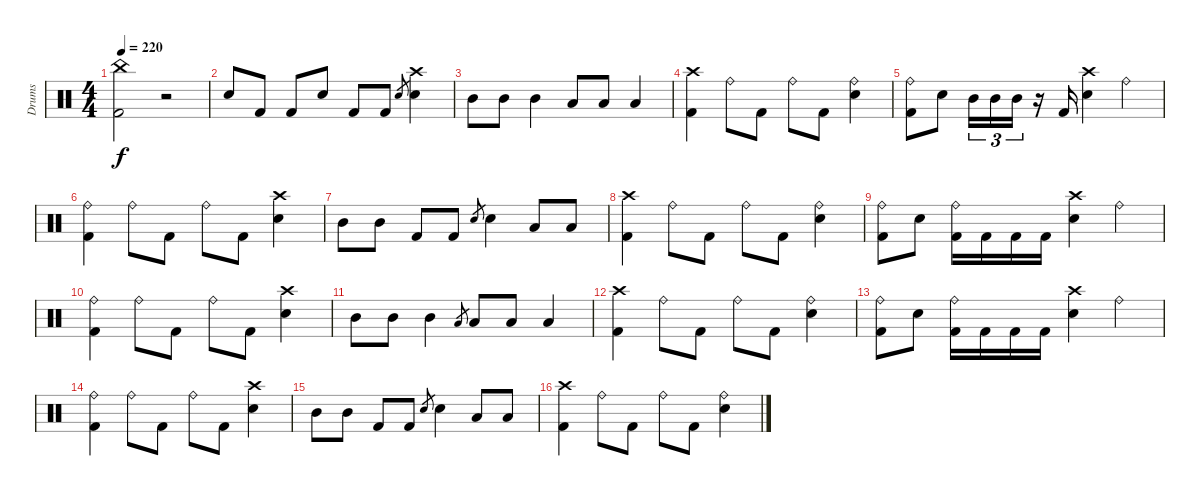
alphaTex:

\track ("Drums" "Drums") {instrument percussion}
\staff {score}
\articulation defaults
\ts (4 4)
\tempo 220
\clef neutral
\ks c
("China (hit)" "Kick (hit) 2").2{dy f} r.2 |
"Electric Snare (hit)".8 "Kick (hit) 2".8 "Kick (hit) 2".8 "Electric Snare (hit)".8 "Kick (hit) 2".8 "Kick (hit) 2".8 "Electric Snare (hit)".8{gr} ("Crash high (hit)" "Electric Snare (hit)").4 |
"Mid Tom (hit)".8 "Mid Tom (hit)".8 "Mid Tom (hit)".4 "Low Tom (hit)".8 "Low Tom (hit)".8 "Low Tom (hit)".4 |
("Crash high (hit)" "Kick (hit) 2").4 "Ride (bell)".8 "Kick (hit) 2".8 "Ride (bell)".8 "Kick (hit) 2".8 ("Ride (bell)" "Electric Snare (hit)").4 |
("Ride (bell)" "Kick (hit) 2").8 "Electric Snare (hit)".8 "Mid Tom (hit)".16{tu (3 2)} "Mid Tom (hit)".16{tu (3 2)} "Mid Tom (hit)".16{tu (3 2)} r.16 "Kick (hit) 2".16 ("Crash high (hit)" "Electric Snare (hit)").4 "Ride (bell)".4 |
("Ride (bell)" "Kick (hit) 2").4 "Ride (bell)".8 "Kick (hit) 2".8 "Ride (bell)".8 "Kick (hit) 2".8 ("Crash high (hit)" "Electric Snare (hit)").4 |
"Mid Tom (hit)".8 "Mid Tom (hit)".8 "Kick (hit) 2".8 "Kick (hit) 2".8 "Electric Snare (hit)".8{gr} "Electric Snare (hit)".4 "Low Tom (hit)".8 "Low Tom (hit)".8 |
("Crash high (hit)" "Kick (hit) 2").4 "Ride (bell)".8 "Kick (hit) 2".8 "Ride (bell)".8 "Kick (hit) 2".8 ("Ride (bell)" "Electric Snare (hit)").4 |
("Ride (bell)" "Kick (hit) 2").8 "Electric Snare (hit)".8 ("Ride (bell)" "Kick (hit) 2").16 "Kick (hit) 2".16 "Kick (hit) 2".16 "Kick (hit) 2".16 ("Crash high (hit)" "Electric Snare (hit)").4 "Ride (bell)".4 |
("Ride (bell)" "Kick (hit) 2").4 "Ride (bell)".8 "Kick (hit) 2".8 "Ride (bell)".8 "Kick (hit) 2".8 ("Crash high (hit)" "Electric Snare (hit)").4 |
"Mid Tom (hit)".8 "Mid Tom (hit)".8 "Mid Tom (hit)".4 "Low Tom (hit)".8{gr} "Low Tom (hit)".8 "Low Tom (hit)".8 "Low Tom (hit)".4 |
("Crash high (hit)" "Kick (hit) 2").4 "Ride (bell)".8 "Kick (hit) 2".8 "Ride (bell)".8 "Kick (hit) 2".8 ("Ride (bell)" "Electric Snare (hit)").4 |
("Ride (bell)" "Kick (hit) 2").8 "Electric Snare (hit)".8 ("Ride (bell)" "Kick (hit) 2").16 "Kick (hit) 2".16 "Kick (hit) 2".16 "Kick (hit) 2".16 ("Crash high (hit)" "Electric Snare (hit)").4 "Ride (bell)".4 |
("Ride (bell)" "Kick (hit) 2").4 "Ride (bell)".8 "Kick (hit) 2".8 "Ride (bell)".8 "Kick (hit) 2".8 ("Crash high (hit)" "Electric Snare (hit)").4 |
"Mid Tom (hit)".8 "Mid Tom (hit)".8 "Kick (hit) 2".8 "Kick (hit) 2".8 "Electric Snare (hit)".8{gr} "Electric Snare (hit)".4 "Low Tom (hit)".8 "Low Tom (hit)".8 |
("Crash high (hit)" "Kick (hit) 2").4 "Ride (bell)".8 "Kick (hit) 2".8 "Ride (bell)".8 "Kick (hit) 2".8 ("Ride (bell)" "Electric Snare (hit)").4
